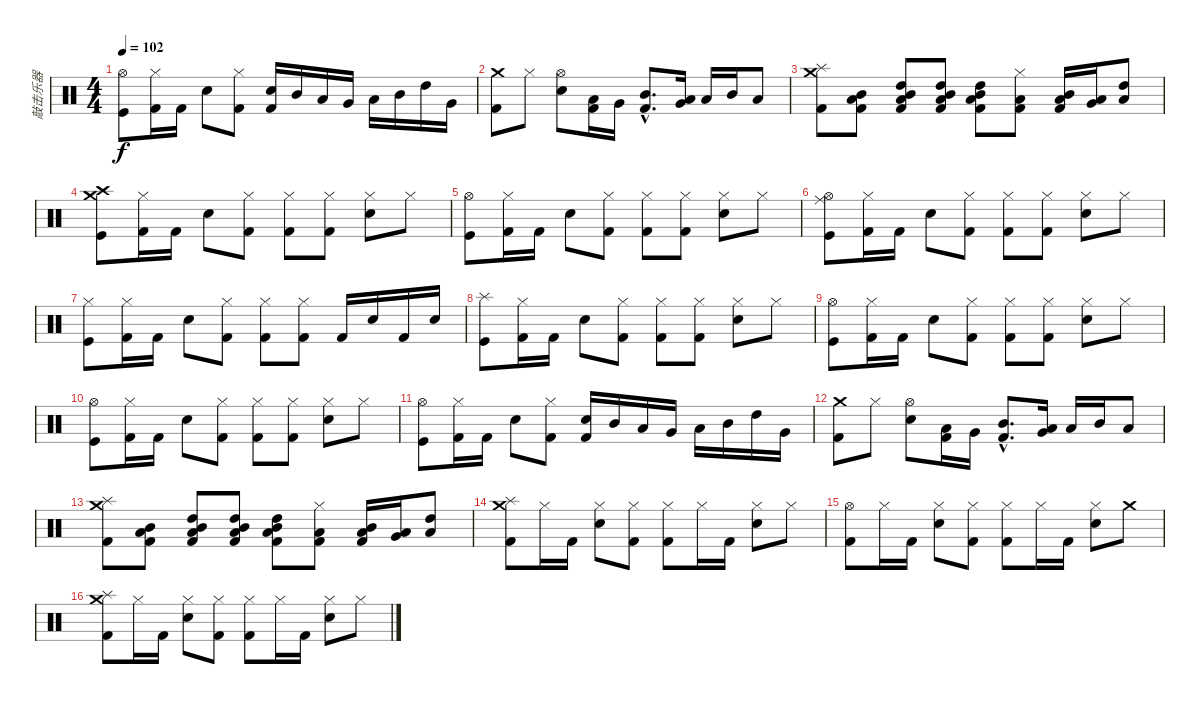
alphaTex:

\track ("敲击乐器" "敲击乐器") {instrument percussion}
\staff {score}
\articulation defaults
\ts (4 4)
\tempo 102
\clef neutral
\ks c
("Hi-Hat (open)" "Kick (hit)").8{dy f} ("Hi-Hat (closed)" "Kick (hit) 2").16 "Kick (hit) 2".16 "Electric Snare (hit)".8 ("Hi-Hat (closed)" "Kick (hit) 2").8 ("Electric Snare (hit)" "Kick (hit) 2").16 "Mid Tom (hit)".16 "Low Tom (hit)".16 "Very Low Tom (hit)".16 "Low Tom (hit)".16 "Mid Tom (hit)".16 "High Tom (hit)".16 "Very Low Tom (hit)".16 |
("Crash medium (hit)" "Kick (hit) 2").8 "Hi-Hat (closed)".8 ("Hi-Hat (open)" "Electric Snare (hit)").8 ("Low Tom (hit)" "Kick (hit) 2").16 "Very Low Tom (hit)".16 ("Mid Tom (hit)"{hac} "Kick (hit) 2"{hac}).8{d} ("Very Low Tom (hit)" "Low Tom (hit)").16 "Low Tom (hit)".16 "Mid Tom (hit)".16 "Low Floor Tom (hit)".8 |
("Splash (hit)" "Crash medium (hit)" "Kick (hit) 2").8 ("Mid Tom (hit)" "Low Tom (hit)" "Kick (hit) 2").8 ("Mid Tom (hit)" "High Tom (hit)" "Low Tom (hit)" "Kick (hit) 2").8 ("Mid Tom (hit)" "High Tom (hit)" "Low Tom (hit)" "Kick (hit) 2").8 ("Mid Tom (hit)" "High Tom (hit)" "Low Tom (hit)" "Kick (hit) 2").8 ("Hi-Hat (closed)" "Low Tom (hit)" "Kick (hit) 2").8 ("Mid Tom (hit)" "Low Tom (hit)" "Kick (hit) 2").16 ("Low Tom (hit)" "Very Low Tom (hit)").16 ("High Tom (hit)" "Low Floor Tom (hit)").8 |
("Crash medium (hit)" "Crash high (hit)" "Kick (hit)").8 ("Hi-Hat (closed)" "Kick (hit) 2").16 "Kick (hit) 2".16 "Electric Snare (hit)".8 ("Hi-Hat (closed)" "Kick (hit) 2").8 ("Hi-Hat (closed)" "Kick (hit) 2").8 ("Hi-Hat (closed)" "Kick (hit) 2").8 ("Hi-Hat (closed)" "Electric Snare (hit)").8 "Hi-Hat (closed)".8 |
("Hi-Hat (open)" "Kick (hit)").8 ("Hi-Hat (closed)" "Kick (hit) 2").16 "Kick (hit) 2".16 "Electric Snare (hit)".8 ("Hi-Hat (closed)" "Kick (hit) 2").8 ("Hi-Hat (closed)" "Kick (hit) 2").8 ("Hi-Hat (closed)" "Kick (hit) 2").8 ("Hi-Hat (closed)" "Electric Snare (hit)").8 "Hi-Hat (closed)".8 |
("Ride (middle)" "Hi-Hat (open)" "Kick (hit)").8 ("Hi-Hat (closed)" "Kick (hit) 2").16 "Kick (hit) 2".16 "Electric Snare (hit)".8 ("Hi-Hat (closed)" "Kick (hit) 2").8 ("Hi-Hat (closed)" "Kick (hit) 2").8 ("Hi-Hat (closed)" "Kick (hit) 2").8 ("Hi-Hat (closed)" "Electric Snare (hit)").8 "Hi-Hat (closed)".8 |
("Hi-Hat (closed)" "Kick (hit)").8 ("Hi-Hat (closed)" "Kick (hit) 2").16 "Kick (hit) 2".16 "Electric Snare (hit)".8 ("Hi-Hat (closed)" "Kick (hit) 2").8 ("Hi-Hat (closed)" "Kick (hit) 2").8 ("Hi-Hat (closed)" "Kick (hit) 2").8 "Kick (hit) 2".16 "Electric Snare (hit)".16 "Kick (hit) 2".16 "Electric Snare (hit)".16 |
("Splash (hit)" "Kick (hit)").8 ("Hi-Hat (closed)" "Kick (hit) 2").16 "Kick (hit) 2".16 "Electric Snare (hit)".8 ("Hi-Hat (closed)" "Kick (hit) 2").8 ("Hi-Hat (closed)" "Kick (hit) 2").8 ("Hi-Hat (closed)" "Kick (hit) 2").8 ("Hi-Hat (closed)" "Electric Snare (hit)").8 "Hi-Hat (closed)".8 |
("Hi-Hat (open)" "Kick (hit)").8 ("Hi-Hat (closed)" "Kick (hit) 2").16 "Kick (hit) 2".16 "Electric Snare (hit)".8 ("Hi-Hat (closed)" "Kick (hit) 2").8 ("Hi-Hat (closed)" "Kick (hit) 2").8 ("Hi-Hat (closed)" "Kick (hit) 2").8 ("Hi-Hat (closed)" "Electric Snare (hit)").8 "Hi-Hat (closed)".8 |
("Hi-Hat (open)" "Kick (hit)").8 ("Hi-Hat (closed)" "Kick (hit) 2").16 "Kick (hit) 2".16 "Electric Snare (hit)".8 ("Hi-Hat (closed)" "Kick (hit) 2").8 ("Hi-Hat (closed)" "Kick (hit) 2").8 ("Hi-Hat (closed)" "Kick (hit) 2").8 ("Hi-Hat (closed)" "Electric Snare (hit)").8 "Hi-Hat (closed)".8 |
("Hi-Hat (open)" "Kick (hit)").8 ("Hi-Hat (closed)" "Kick (hit) 2").16 "Kick (hit) 2".16 "Electric Snare (hit)".8 ("Hi-Hat (closed)" "Kick (hit) 2").8 ("Electric Snare (hit)" "Kick (hit) 2").16 "Mid Tom (hit)".16 "Low Tom (hit)".16 "Very Low Tom (hit)".16 "Low Tom (hit)".16 "Mid Tom (hit)".16 "High Tom (hit)".16 "Very Low Tom (hit)".16 |
("Crash medium (hit)" "Kick (hit) 2").8 "Hi-Hat (closed)".8 ("Hi-Hat (open)" "Electric Snare (hit)").8 ("Low Tom (hit)" "Kick (hit) 2").16 "Very Low Tom (hit)".16 ("Mid Tom (hit)"{hac} "Kick (hit) 2"{hac}).8{d} ("Very Low Tom (hit)" "Low Tom (hit)").16 "Low Tom (hit)".16 "Mid Tom (hit)".16 "Low Floor Tom (hit)".8 |
("Splash (hit)" "Crash medium (hit)" "Kick (hit) 2").8 ("Mid Tom (hit)" "Low Tom (hit)" "Kick (hit) 2").8 ("Mid Tom (hit)" "High Tom (hit)" "Low Tom (hit)" "Kick (hit) 2").8 ("Mid Tom (hit)" "High Tom (hit)" "Low Tom (hit)" "Kick (hit) 2").8 ("Mid Tom (hit)" "High Tom (hit)" "Low Tom (hit)" "Kick (hit) 2").8 ("Hi-Hat (closed)" "Low Tom (hit)" "Kick (hit) 2").8 ("Mid Tom (hit)" "Low Tom (hit)" "Kick (hit) 2").16 ("Low Tom (hit)" "Very Low Tom (hit)").16 ("High Tom (hit)" "Low Floor Tom (hit)").8 |
("Splash (hit)" "Crash medium (hit)" "Kick (hit) 2").8 "Hi-Hat (closed)".16 "Kick (hit) 2".16 ("Hi-Hat (closed)" "Electric Snare (hit)").8 ("Hi-Hat (closed)" "Kick (hit) 2").8 ("Hi-Hat (closed)" "Kick (hit) 2").8 "Hi-Hat (closed)".16 "Kick (hit) 2".16 ("Hi-Hat (closed)" "Electric Snare (hit)").8 "Hi-Hat (closed)".8 |
("Hi-Hat (open)" "Kick (hit) 2").8 "Hi-Hat (closed)".16 "Kick (hit) 2".16 ("Hi-Hat (closed)" "Electric Snare (hit)").8 ("Hi-Hat (closed)" "Kick (hit) 2").8 ("Hi-Hat (closed)" "Kick (hit) 2").8 "Hi-Hat (closed)".16 "Kick (hit) 2".16 ("Hi-Hat (closed)" "Electric Snare (hit)").8 "Crash medium (hit)".8 |
("Splash (hit)" "Crash medium (hit)" "Kick (hit) 2").8 "Hi-Hat (closed)".16 "Kick (hit) 2".16 ("Hi-Hat (closed)" "Electric Snare (hit)").8 ("Hi-Hat (closed)" "Kick (hit) 2").8 ("Hi-Hat (closed)" "Kick (hit) 2").8 "Hi-Hat (closed)".16 "Kick (hit) 2".16 ("Hi-Hat (closed)" "Electric Snare (hit)").8 "Hi-Hat (closed)".8
